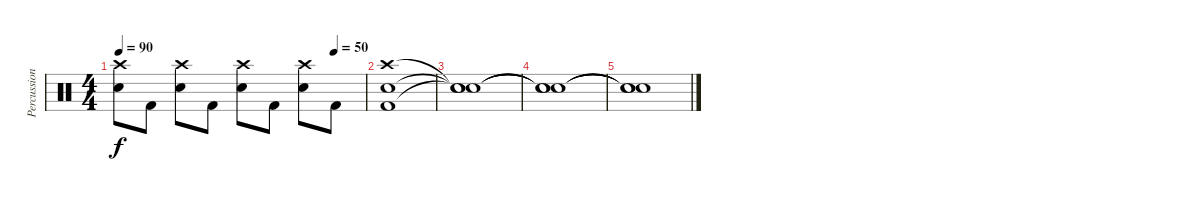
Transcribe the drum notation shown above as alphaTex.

\track ("Percussion" "Percussion") {instrument percussion}
\staff {score}
\articulation defaults
\ts (4 4)
\tempo 90
\tempo (50 0.875)
\clef neutral
\ks c
("Crash high (hit)" "Snare (hit) 2").8{dy f} "Kick (hit) 2".8 ("Crash high (hit)" "Snare (hit) 2").8 "Kick (hit) 2".8 ("Crash high (hit)" "Snare (hit) 2").8 "Kick (hit) 2".8 ("Crash high (hit)" "Snare (hit) 2").8 "Kick (hit) 2".8 |
("Crash high (hit)" "Snare (hit) 2" "Kick (hit) 2").1{volume 0} |
("Snare (hit)"{t} "Snare (hit)"{t} "Snare (hit)"{t}).1 |
("Snare (hit)"{t} "Snare (hit)"{t} "Snare (hit)"{t}).1 |
("Snare (hit)"{t} "Snare (hit)"{t} "Snare (hit)"{t}).1
